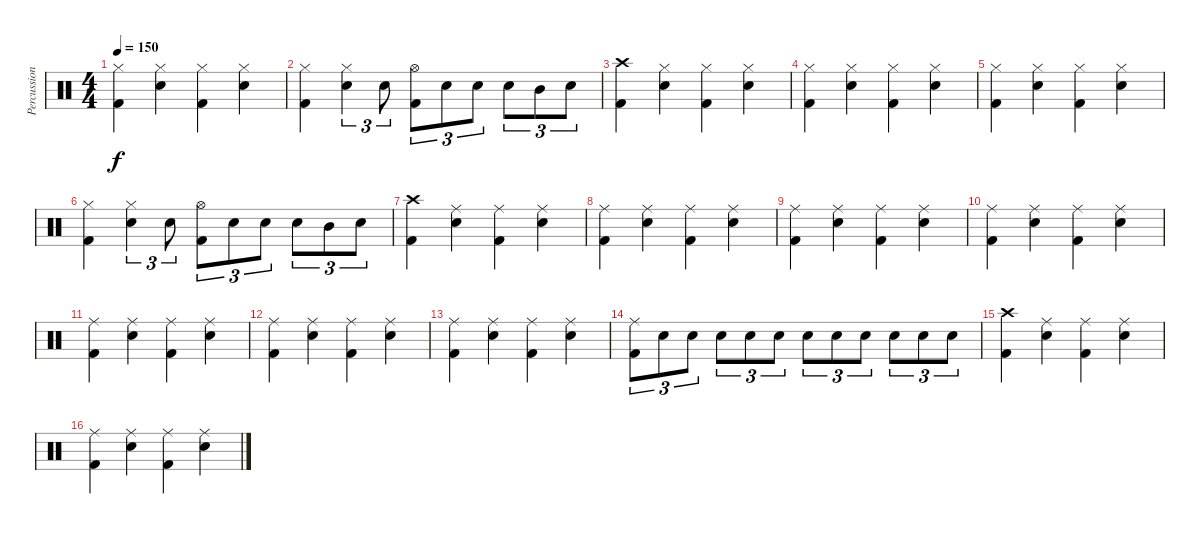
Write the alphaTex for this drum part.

\track ("Percussion" "Percussion") {instrument percussion}
\staff {score}
\articulation defaults
\ts (4 4)
\tempo 150
\clef neutral
\ks c
("Hi-Hat (closed)" "Kick (hit) 2").4{dy f} ("Hi-Hat (closed)" "Electric Snare (hit)").4 ("Hi-Hat (closed)" "Kick (hit) 2").4 ("Hi-Hat (closed)" "Electric Snare (hit)").4 |
("Hi-Hat (closed)" "Kick (hit) 2").4 ("Hi-Hat (closed)" "Electric Snare (hit)").4{tu (3 2)} "Electric Snare (hit)".8{tu (3 2)} ("Hi-Hat (open)" "Kick (hit) 2").8{tu (3 2)} "Electric Snare (hit)".8{tu (3 2)} "Electric Snare (hit)".8{tu (3 2)} "Electric Snare (hit)".8{tu (3 2)} "Mid Tom (hit)".8{tu (3 2)} "Electric Snare (hit)".8{tu (3 2)} |
("Crash high (hit)" "Kick (hit) 2").4 ("Hi-Hat (closed)" "Electric Snare (hit)").4 ("Hi-Hat (closed)" "Kick (hit) 2").4 ("Hi-Hat (closed)" "Electric Snare (hit)").4 |
("Hi-Hat (closed)" "Kick (hit) 2").4 ("Hi-Hat (closed)" "Electric Snare (hit)").4 ("Hi-Hat (closed)" "Kick (hit) 2").4 ("Hi-Hat (closed)" "Electric Snare (hit)").4 |
("Hi-Hat (closed)" "Kick (hit) 2").4 ("Hi-Hat (closed)" "Electric Snare (hit)").4 ("Hi-Hat (closed)" "Kick (hit) 2").4 ("Hi-Hat (closed)" "Electric Snare (hit)").4 |
("Hi-Hat (closed)" "Kick (hit) 2").4 ("Hi-Hat (closed)" "Electric Snare (hit)").4{tu (3 2)} "Electric Snare (hit)".8{tu (3 2)} ("Hi-Hat (open)" "Kick (hit) 2").8{tu (3 2)} "Electric Snare (hit)".8{tu (3 2)} "Electric Snare (hit)".8{tu (3 2)} "Electric Snare (hit)".8{tu (3 2)} "Mid Tom (hit)".8{tu (3 2)} "Electric Snare (hit)".8{tu (3 2)} |
("Crash high (hit)" "Kick (hit) 2").4 ("Ride (middle)" "Electric Snare (hit)").4 ("Ride (middle)" "Kick (hit) 2").4 ("Ride (middle)" "Electric Snare (hit)").4 |
("Ride (middle)" "Kick (hit) 2").4 ("Ride (middle)" "Electric Snare (hit)").4 ("Ride (middle)" "Kick (hit) 2").4 ("Ride (middle)" "Electric Snare (hit)").4 |
("Ride (middle)" "Kick (hit) 2").4 ("Ride (middle)" "Electric Snare (hit)").4 ("Ride (middle)" "Kick (hit) 2").4 ("Ride (middle)" "Electric Snare (hit)").4 |
("Ride (middle)" "Kick (hit) 2").4 ("Ride (middle)" "Electric Snare (hit)").4 ("Ride (middle)" "Kick (hit) 2").4 ("Ride (middle)" "Electric Snare (hit)").4 |
("Ride (middle)" "Kick (hit) 2").4 ("Ride (middle)" "Electric Snare (hit)").4 ("Ride (middle)" "Kick (hit) 2").4 ("Ride (middle)" "Electric Snare (hit)").4 |
("Ride (middle)" "Kick (hit) 2").4 ("Ride (middle)" "Electric Snare (hit)").4 ("Ride (middle)" "Kick (hit) 2").4 ("Ride (middle)" "Electric Snare (hit)").4 |
("Ride (middle)" "Kick (hit) 2").4 ("Ride (middle)" "Electric Snare (hit)").4 ("Ride (middle)" "Kick (hit) 2").4 ("Ride (middle)" "Electric Snare (hit)").4 |
("Ride (middle)" "Kick (hit) 2").8{tu (3 2)} "Electric Snare (hit)".8{tu (3 2)} "Electric Snare (hit)".8{tu (3 2)} "Electric Snare (hit)".8{tu (3 2)} "Electric Snare (hit)".8{tu (3 2)} "Electric Snare (hit)".8{tu (3 2)} "Electric Snare (hit)".8{tu (3 2)} "Electric Snare (hit)".8{tu (3 2)} "Electric Snare (hit)".8{tu (3 2)} "Electric Snare (hit)".8{tu (3 2)} "Electric Snare (hit)".8{tu (3 2)} "Electric Snare (hit)".8{tu (3 2)} |
("Crash high (hit)" "Kick (hit) 2").4 ("Ride (middle)" "Electric Snare (hit)").4 ("Ride (middle)" "Kick (hit) 2").4 ("Ride (middle)" "Electric Snare (hit)").4 |
("Ride (middle)" "Kick (hit) 2").4 ("Ride (middle)" "Electric Snare (hit)").4 ("Ride (middle)" "Kick (hit) 2").4 ("Ride (middle)" "Electric Snare (hit)").4
